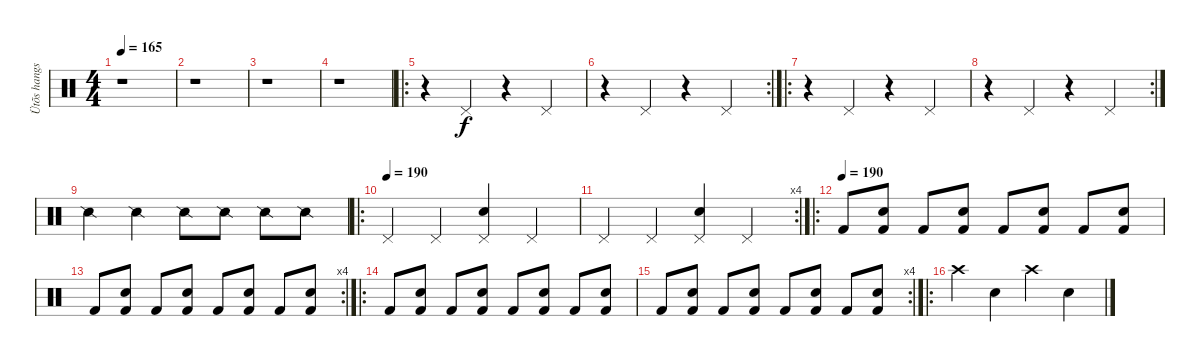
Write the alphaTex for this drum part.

\track ("Ütõs hangszer" "Ütõs hangs") {instrument percussion}
\staff {score}
\articulation defaults
\ts (4 4)
\tempo 165
\clef neutral
\ks c
r.1{dy f} |
r.1 |
r.1 |
r.1 |
\ro
r.4 "Pedal Hi-Hat (hit)".4 r.4 "Pedal Hi-Hat (hit)".4 |
\rc 2
r.4 "Pedal Hi-Hat (hit)".4 r.4 "Pedal Hi-Hat (hit)".4 |
\ro
r.4 "Pedal Hi-Hat (hit)".4 r.4 "Pedal Hi-Hat (hit)".4 |
\rc 2
r.4 "Pedal Hi-Hat (hit)".4 r.4 "Pedal Hi-Hat (hit)".4 |
"Snare (side stick) 2".4 "Snare (side stick) 2".4 "Snare (side stick) 2".8 "Snare (side stick) 2".8 "Snare (side stick) 2".8 "Snare (side stick) 2".8 |
\ro
\tempo (190)
"Pedal Hi-Hat (hit)".4 "Pedal Hi-Hat (hit)".4 ("Snare (hit) 2" "Pedal Hi-Hat (hit)").4 "Pedal Hi-Hat (hit)".4 |
\rc 4 "Pedal Hi-Hat (hit)".4 "Pedal Hi-Hat (hit)".4
("Pedal Hi-Hat (hit)" "Snare (hit) 2").4 "Pedal Hi-Hat (hit)".4 |
\ro
\tempo (190)
"Kick (hit) 2".8 ("Kick (hit) 2" "Snare (hit) 2").8 "Kick (hit) 2".8 ("Snare (hit) 2" "Kick (hit) 2").8 "Kick (hit) 2".8 ("Snare (hit) 2" "Kick (hit) 2").8 "Kick (hit) 2".8 ("Kick (hit) 2" "Snare (hit) 2").8 |
\rc 4 "Kick (hit) 2".8
("Kick (hit) 2" "Snare (hit) 2").8 "Kick (hit) 2".8 ("Kick (hit) 2" "Snare (hit) 2").8 "Kick (hit) 2".8 ("Snare (hit) 2" "Kick (hit) 2").8 "Kick (hit) 2".8 ("Kick (hit) 2" "Snare (hit) 2").8 |
\ro "Kick (hit) 2".8
("Kick (hit) 2" "Snare (hit) 2").8 "Kick (hit) 2".8 ("Snare (hit) 2" "Kick (hit) 2").8 "Kick (hit) 2".8 ("Snare (hit) 2" "Kick (hit) 2").8 "Kick (hit) 2".8 ("Kick (hit) 2" "Snare (hit) 2").8 |
\rc 4 "Kick (hit) 2".8
("Kick (hit) 2" "Snare (hit) 2").8 "Kick (hit) 2".8 ("Kick (hit) 2" "Snare (hit) 2").8 "Kick (hit) 2".8 ("Snare (hit) 2" "Kick (hit) 2").8 "Kick (hit) 2".8 ("Kick (hit) 2" "Snare (hit) 2").8 |
\ro "Crash high (hit)".4 "Snare (hit) 2".4 "Crash high (hit)".4 "Snare (hit) 2".4
